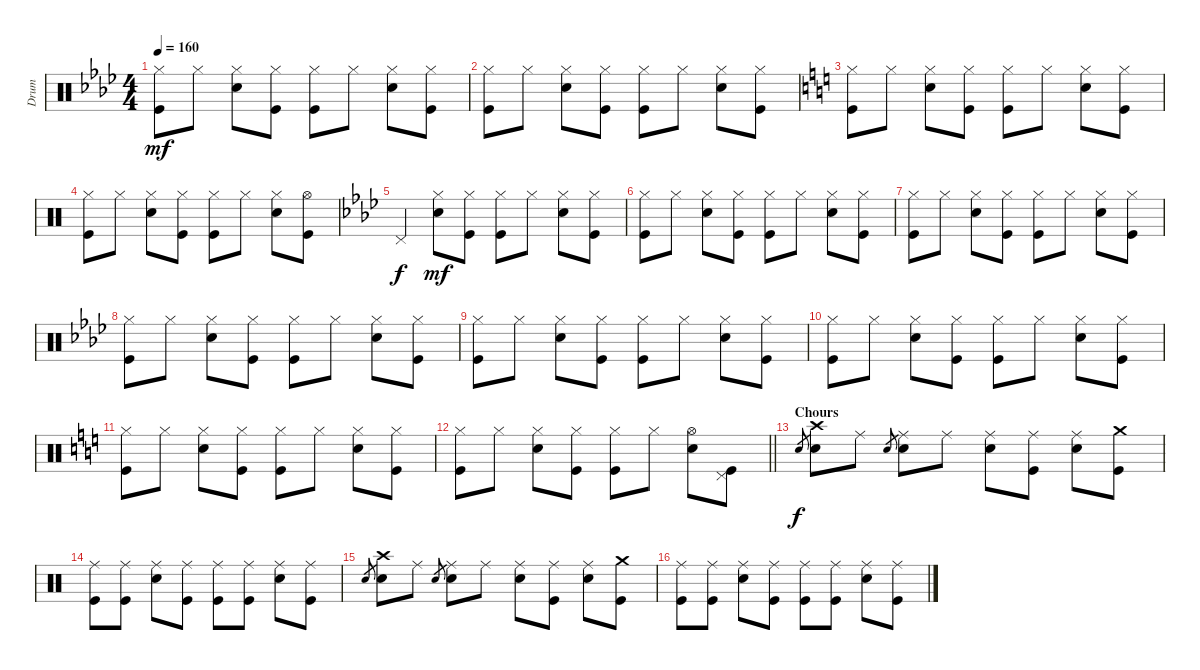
\track ("Drum" "Drum") {instrument percussion}
\staff {score}
\articulation defaults
\ts (4 4)
\tempo 160
\clef neutral
\ks ab
("Hi-Hat (closed)" "Kick (hit)").8{dy mf} "Hi-Hat (closed)".8 ("Hi-Hat (closed)" "Electric Snare (hit)").8 ("Hi-Hat (closed)" "Kick (hit)").8 ("Hi-Hat (closed)" "Kick (hit)").8 "Hi-Hat (closed)".8 ("Hi-Hat (closed)" "Electric Snare (hit)").8 ("Hi-Hat (closed)" "Kick (hit)").8 |
("Hi-Hat (closed)" "Kick (hit)").8 "Hi-Hat (closed)".8 ("Hi-Hat (closed)" "Electric Snare (hit)").8 ("Hi-Hat (closed)" "Kick (hit)").8 ("Hi-Hat (closed)" "Kick (hit)").8 "Hi-Hat (closed)".8 ("Hi-Hat (closed)" "Electric Snare (hit)").8 ("Hi-Hat (closed)" "Kick (hit)").8 |
\ks c
("Hi-Hat (closed)" "Kick (hit)").8 "Hi-Hat (closed)".8 ("Hi-Hat (closed)" "Electric Snare (hit)").8 ("Hi-Hat (closed)" "Kick (hit)").8 ("Hi-Hat (closed)" "Kick (hit)").8 "Hi-Hat (closed)".8 ("Hi-Hat (closed)" "Electric Snare (hit)").8 ("Hi-Hat (closed)" "Kick (hit)").8 |
("Hi-Hat (closed)" "Kick (hit)").8 "Hi-Hat (closed)".8 ("Hi-Hat (closed)" "Electric Snare (hit)").8 ("Hi-Hat (closed)" "Kick (hit)").8 ("Hi-Hat (closed)" "Kick (hit)").8 "Hi-Hat (closed)".8 ("Hi-Hat (closed)" "Electric Snare (hit)").8 ("Hi-Hat (open)" "Kick (hit)").8 |
\ks ab "Pedal Hi-Hat (hit)".4{dy f}
("Hi-Hat (closed)" "Electric Snare (hit)").8{dy mf} ("Hi-Hat (closed)" "Kick (hit)").8 ("Hi-Hat (closed)" "Kick (hit)").8 "Hi-Hat (closed)".8 ("Hi-Hat (closed)" "Electric Snare (hit)").8 ("Hi-Hat (closed)" "Kick (hit)").8 |
("Hi-Hat (closed)" "Kick (hit)").8 "Hi-Hat (closed)".8 ("Hi-Hat (closed)" "Electric Snare (hit)").8 ("Hi-Hat (closed)" "Kick (hit)").8 ("Hi-Hat (closed)" "Kick (hit)").8 "Hi-Hat (closed)".8 ("Hi-Hat (closed)" "Electric Snare (hit)").8 ("Hi-Hat (closed)" "Kick (hit)").8 |
("Hi-Hat (closed)" "Kick (hit)").8 "Hi-Hat (closed)".8 ("Hi-Hat (closed)" "Electric Snare (hit)").8 ("Hi-Hat (closed)" "Kick (hit)").8 ("Hi-Hat (closed)" "Kick (hit)").8 "Hi-Hat (closed)".8 ("Hi-Hat (closed)" "Electric Snare (hit)").8 ("Hi-Hat (closed)" "Kick (hit)").8 |
("Hi-Hat (closed)" "Kick (hit)").8 "Hi-Hat (closed)".8 ("Hi-Hat (closed)" "Electric Snare (hit)").8 ("Hi-Hat (closed)" "Kick (hit)").8 ("Hi-Hat (closed)" "Kick (hit)").8 "Hi-Hat (closed)".8 ("Hi-Hat (closed)" "Electric Snare (hit)").8 ("Hi-Hat (closed)" "Kick (hit)").8 |
("Hi-Hat (closed)" "Kick (hit)").8 "Hi-Hat (closed)".8 ("Hi-Hat (closed)" "Electric Snare (hit)").8 ("Hi-Hat (closed)" "Kick (hit)").8 ("Hi-Hat (closed)" "Kick (hit)").8 "Hi-Hat (closed)".8 ("Hi-Hat (closed)" "Electric Snare (hit)").8 ("Hi-Hat (closed)" "Kick (hit)").8 |
("Hi-Hat (closed)" "Kick (hit)").8 "Hi-Hat (closed)".8 ("Hi-Hat (closed)" "Electric Snare (hit)").8 ("Hi-Hat (closed)" "Kick (hit)").8 ("Hi-Hat (closed)" "Kick (hit)").8 "Hi-Hat (closed)".8 ("Hi-Hat (closed)" "Electric Snare (hit)").8 ("Hi-Hat (closed)" "Kick (hit)").8 |
\ks c
("Hi-Hat (closed)" "Kick (hit)").8 "Hi-Hat (closed)".8 ("Hi-Hat (closed)" "Electric Snare (hit)").8 ("Hi-Hat (closed)" "Kick (hit)").8 ("Hi-Hat (closed)" "Kick (hit)").8 "Hi-Hat (closed)".8 ("Hi-Hat (closed)" "Electric Snare (hit)").8 ("Hi-Hat (closed)" "Kick (hit)").8 |
\barLineRight lightlight
("Hi-Hat (closed)" "Kick (hit)").8 "Hi-Hat (closed)".8 ("Hi-Hat (closed)" "Electric Snare (hit)").8 ("Hi-Hat (closed)" "Kick (hit)").8 ("Hi-Hat (closed)" "Kick (hit)").8 "Hi-Hat (closed)".8 ("Hi-Hat (open)" "Electric Snare (hit)").8 ("Pedal Hi-Hat (hit)" "Kick (hit)").8 |
\section ("" "Chours")
"Electric Snare (hit)".8{gr dy f} ("Crash high (hit)" "Electric Snare (hit)").8 "Ride (middle)".8 "Electric Snare (hit)".8{gr} ("Ride (middle)" "Electric Snare (hit)").8 "Ride (middle)".8 ("Ride (middle)" "Electric Snare (hit)").8 ("Ride (middle)" "Kick (hit)").8 ("Ride (middle)" "Electric Snare (hit)").8 ("Crash medium (hit)" "Kick (hit)").8 |
("Ride (middle)" "Kick (hit)").8 ("Ride (middle)" "Kick (hit)").8 ("Ride (middle)" "Electric Snare (hit)").8 ("Ride (middle)" "Kick (hit)").8 ("Ride (middle)" "Kick (hit)").8 ("Ride (middle)" "Kick (hit)").8 ("Ride (middle)" "Electric Snare (hit)").8 ("Ride (middle)" "Kick (hit)").8 |
"Electric Snare (hit)".8{gr} ("Crash high (hit)" "Electric Snare (hit)").8 "Ride (middle)".8 "Electric Snare (hit)".8{gr} ("Ride (middle)" "Electric Snare (hit)").8 "Ride (middle)".8 ("Ride (middle)" "Electric Snare (hit)").8 ("Ride (middle)" "Kick (hit)").8 ("Ride (middle)" "Electric Snare (hit)").8 ("Crash medium (hit)" "Kick (hit)").8 |
("Ride (middle)" "Kick (hit)").8 ("Ride (middle)" "Kick (hit)").8 ("Ride (middle)" "Electric Snare (hit)").8 ("Ride (middle)" "Kick (hit)").8 ("Ride (middle)" "Kick (hit)").8 ("Ride (middle)" "Kick (hit)").8 ("Ride (middle)" "Electric Snare (hit)").8 ("Ride (middle)" "Kick (hit)").8
